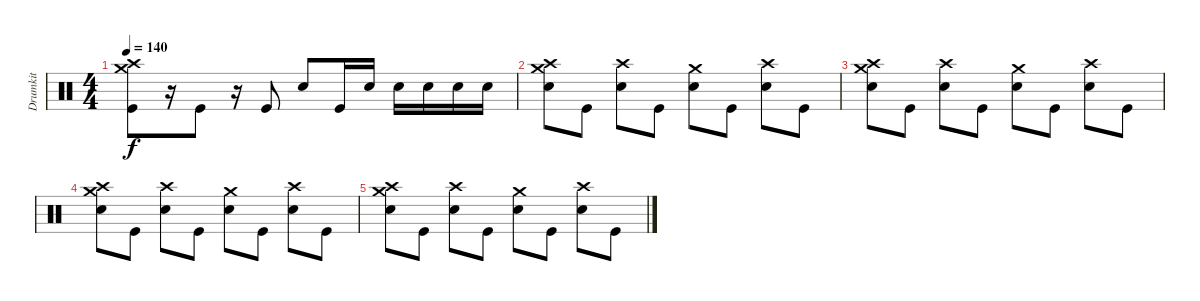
\track ("Drumkit" "Drumkit") {instrument percussion}
\staff {score}
\articulation defaults
\ts (4 4)
\tempo 140
\clef neutral
\ks c
("Crash high (hit)" "Crash medium (hit)" "Kick (hit)").8{dy f} r.16 "Kick (hit)".8 r.16 "Kick (hit)".8 "Snare (hit) 2".8 "Kick (hit)".16 "Snare (hit) 2".16 "Snare (hit) 2".16 "Snare (hit) 2".16 "Snare (hit) 2".16 "Snare (hit) 2".16 |
("Snare (hit) 2" "Crash high (hit)" "Crash medium (hit)").8 "Kick (hit)".8 ("Snare (hit) 2" "Crash high (hit)").8 "Kick (hit)".8 ("Snare (hit) 2" "Crash medium (hit)").8 "Kick (hit)".8 ("Snare (hit) 2" "Crash high (hit)").8 "Kick (hit)".8 |
("Snare (hit) 2" "Crash high (hit)" "Crash medium (hit)").8 "Kick (hit)".8 ("Snare (hit) 2" "Crash high (hit)").8 "Kick (hit)".8 ("Snare (hit) 2" "Crash medium (hit)").8 "Kick (hit)".8 ("Snare (hit) 2" "Crash high (hit)").8 "Kick (hit)".8 |
("Snare (hit) 2" "Crash high (hit)" "Crash medium (hit)").8 "Kick (hit)".8 ("Snare (hit) 2" "Crash high (hit)").8 "Kick (hit)".8 ("Snare (hit) 2" "Crash medium (hit)").8 "Kick (hit)".8 ("Snare (hit) 2" "Crash high (hit)").8 "Kick (hit)".8 |
("Snare (hit) 2" "Crash high (hit)" "Crash medium (hit)").8 "Kick (hit)".8 ("Snare (hit) 2" "Crash high (hit)").8 "Kick (hit)".8 ("Snare (hit) 2" "Crash medium (hit)").8 "Kick (hit)".8 ("Snare (hit) 2" "Crash high (hit)").8 "Kick (hit)".8
